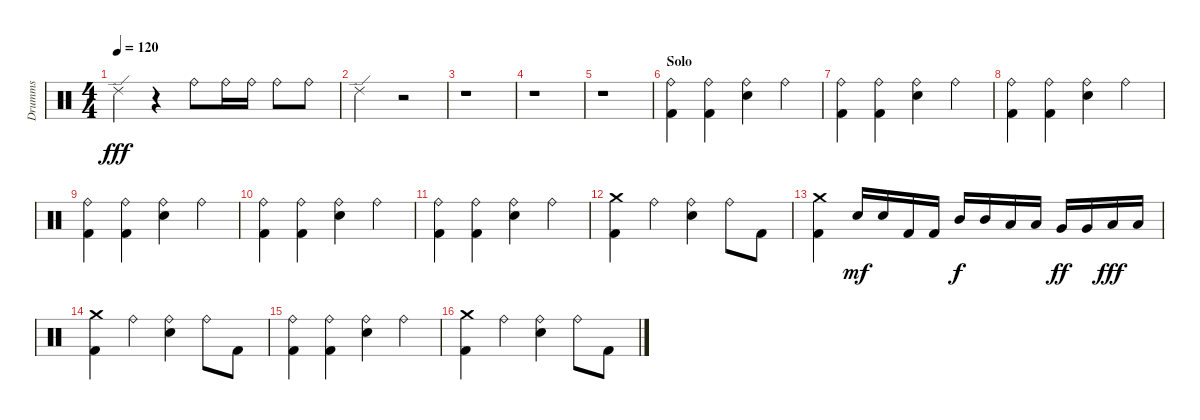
\track ("Drumms" "Drumms") {instrument percussion}
\staff {score}
\articulation defaults
\ts (4 4)
\tempo 120
\clef neutral
\ks c "Ride (edge) 2".4{dy fff}
r.4 "Ride (bell)".8 "Ride (bell)".16 "Ride (bell)".16 "Ride (bell)".8 "Ride (bell)".8 |
"Ride (edge) 2".2 r.2 |
r.1 |
r.1 |
r.1 |
\section ("" "Solo")
("Ride (bell)" "Kick (hit) 2").4 ("Ride (bell)" "Kick (hit) 2").4 ("Ride (bell)" "Snare (hit) 2").4 "Ride (bell)".4 |
("Ride (bell)" "Kick (hit) 2").4 ("Ride (bell)" "Kick (hit) 2").4 ("Ride (bell)" "Snare (hit) 2").4 "Ride (bell)".4 |
("Ride (bell)" "Kick (hit) 2").4 ("Ride (bell)" "Kick (hit) 2").4 ("Ride (bell)" "Snare (hit) 2").4 "Ride (bell)".4 |
("Ride (bell)" "Kick (hit) 2").4 ("Ride (bell)" "Kick (hit) 2").4 ("Ride (bell)" "Snare (hit) 2").4 "Ride (bell)".4 |
("Ride (bell)" "Kick (hit) 2").4 ("Ride (bell)" "Kick (hit) 2").4 ("Ride (bell)" "Snare (hit) 2").4 "Ride (bell)".4 |
("Ride (bell)" "Kick (hit) 2").4 ("Ride (bell)" "Kick (hit) 2").4 ("Ride (bell)" "Snare (hit) 2").4 "Ride (bell)".4 |
("Kick (hit) 2" "Crash medium (hit)").4 "Ride (bell)".4 ("Ride (bell)" "Snare (hit) 2").4 "Ride (bell)".8 "Kick (hit) 2".8 |
("Kick (hit) 2" "Crash medium (hit)").4 "Snare (hit) 2".16{dy mf} "Snare (hit) 2".16 "Kick (hit) 2".16 "Kick (hit) 2".16 "Mid Tom (hit)".16{dy f} "Mid Tom (hit)".16 "Low Tom (hit)".16 "Low Tom (hit)".16 "Very Low Tom (hit)".16{dy ff} "Very Low Tom (hit)".16 "Low Floor Tom (hit)".16{dy fff} "Low Floor Tom (hit)".16 |
("Kick (hit) 2" "Crash medium (hit)").4 "Ride (bell)".4 ("Ride (bell)" "Snare (hit) 2").4 "Ride (bell)".8 "Kick (hit) 2".8 |
("Ride (bell)" "Kick (hit) 2").4 ("Ride (bell)" "Kick (hit) 2").4 ("Ride (bell)" "Snare (hit) 2").4 "Ride (bell)".4 |
("Kick (hit) 2" "Crash medium (hit)").4 "Ride (bell)".4 ("Ride (bell)" "Snare (hit) 2").4 "Ride (bell)".8 "Kick (hit) 2".8
